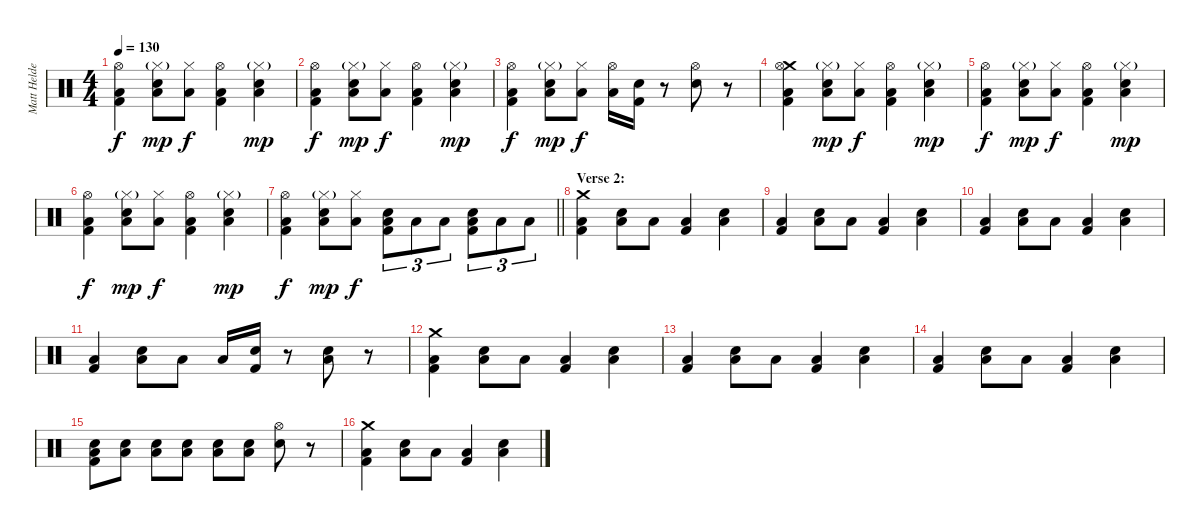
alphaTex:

\track ("Matt Helders (Percussion)" "Matt Helde") {instrument percussion}
\staff {score}
\articulation defaults
\ts (4 4)
\tempo 130
\clef neutral
\ks c
("Hi-Hat (open)" "Low Tom (hit)" "Kick (hit) 2").4{dy f} ("Hi-Hat (closed)"{g} "Snare (hit) 2" "Low Tom (hit)").8{dy mp} ("Hi-Hat (closed)" "Low Tom (hit)").8{dy f} ("Hi-Hat (open)" "Low Tom (hit)" "Kick (hit) 2").4 ("Hi-Hat (closed)"{g} "Snare (hit) 2" "Low Tom (hit)").4{dy mp} |
("Hi-Hat (open)" "Low Tom (hit)" "Kick (hit) 2").4{dy f} ("Hi-Hat (closed)"{g} "Snare (hit) 2" "Low Tom (hit)").8{dy mp} ("Hi-Hat (closed)" "Low Tom (hit)").8{dy f} ("Hi-Hat (open)" "Low Tom (hit)" "Kick (hit) 2").4 ("Hi-Hat (closed)"{g} "Snare (hit) 2" "Low Tom (hit)").4{dy mp} |
("Hi-Hat (open)" "Low Tom (hit)" "Kick (hit) 2").4{dy f} ("Hi-Hat (closed)"{g} "Snare (hit) 2" "Low Tom (hit)").8{dy mp} ("Hi-Hat (closed)" "Low Tom (hit)").8{dy f} ("Hi-Hat (open)" "Low Tom (hit)").16 ("Snare (hit) 2" "Kick (hit) 2").16 r.8 ("Hi-Hat (open)" "Hand Clap (hit)").8 r.8 |
("Crash medium (hit)" "Hi-Hat (open)" "Low Tom (hit)" "Kick (hit) 2").4 ("Hi-Hat (closed)"{g} "Snare (hit) 2" "Low Tom (hit)").8{dy mp} ("Hi-Hat (closed)" "Low Tom (hit)").8{dy f} ("Hi-Hat (open)" "Low Tom (hit)" "Kick (hit) 2").4 ("Hi-Hat (closed)"{g} "Snare (hit) 2" "Low Tom (hit)").4{dy mp} |
("Hi-Hat (open)" "Low Tom (hit)" "Kick (hit) 2").4{dy f} ("Hi-Hat (closed)"{g} "Snare (hit) 2" "Low Tom (hit)").8{dy mp} ("Hi-Hat (closed)" "Low Tom (hit)").8{dy f} ("Hi-Hat (open)" "Low Tom (hit)" "Kick (hit) 2").4 ("Hi-Hat (closed)"{g} "Snare (hit) 2" "Low Tom (hit)").4{dy mp} |
("Hi-Hat (open)" "Low Tom (hit)" "Kick (hit) 2").4{dy f} ("Hi-Hat (closed)"{g} "Snare (hit) 2" "Low Tom (hit)").8{dy mp} ("Hi-Hat (closed)" "Low Tom (hit)").8{dy f} ("Hi-Hat (open)" "Low Tom (hit)" "Kick (hit) 2").4 ("Hi-Hat (closed)"{g} "Snare (hit) 2" "Low Tom (hit)").4{dy mp} |
\barLineRight lightlight
("Hi-Hat (open)" "Low Tom (hit)" "Kick (hit) 2").4{dy f} ("Hi-Hat (closed)"{g} "Snare (hit) 2" "Low Tom (hit)").8{dy mp} ("Hi-Hat (closed)" "Low Tom (hit)").8{dy f} ("Snare (hit) 2" "Low Tom (hit)" "Kick (hit) 2").8{tu (3 2)} "Low Tom (hit)".8{tu (3 2)} "Low Tom (hit)".8{tu (3 2)} ("Snare (hit) 2" "Low Tom (hit)" "Kick (hit) 2").8{tu (3 2)} "Low Tom (hit)".8{tu (3 2)} "Low Tom (hit)".8{tu (3 2)} |
\section ("" "Verse 2:")
("Crash medium (hit)" "Low Tom (hit)" "Kick (hit) 2").4 ("Snare (hit) 2" "Low Tom (hit)").8 "Low Tom (hit)".8 ("Low Tom (hit)" "Kick (hit) 2").4 ("Snare (hit) 2" "Low Tom (hit)").4 |
("Low Tom (hit)" "Kick (hit) 2").4 ("Snare (hit) 2" "Low Tom (hit)").8 "Low Tom (hit)".8 ("Low Tom (hit)" "Kick (hit) 2").4 ("Snare (hit) 2" "Low Tom (hit)").4 |
("Low Tom (hit)" "Kick (hit) 2").4 ("Snare (hit) 2" "Low Tom (hit)").8 "Low Tom (hit)".8 ("Low Tom (hit)" "Kick (hit) 2").4 ("Snare (hit) 2" "Low Tom (hit)").4 |
("Low Tom (hit)" "Kick (hit) 2").4 ("Snare (hit) 2" "Low Tom (hit)").8 "Low Tom (hit)".8 "Low Tom (hit)".16 ("Snare (hit) 2" "Kick (hit) 2").16 r.8 ("Snare (hit) 2" "Low Tom (hit)").8 r.8 |
("Crash medium (hit)" "Low Tom (hit)" "Kick (hit) 2").4 ("Snare (hit) 2" "Low Tom (hit)").8 "Low Tom (hit)".8 ("Low Tom (hit)" "Kick (hit) 2").4 ("Snare (hit) 2" "Low Tom (hit)").4 |
("Low Tom (hit)" "Kick (hit) 2").4 ("Snare (hit) 2" "Low Tom (hit)").8 "Low Tom (hit)".8 ("Low Tom (hit)" "Kick (hit) 2").4 ("Snare (hit) 2" "Low Tom (hit)").4 |
("Low Tom (hit)" "Kick (hit) 2").4 ("Snare (hit) 2" "Low Tom (hit)").8 "Low Tom (hit)".8 ("Low Tom (hit)" "Kick (hit) 2").4 ("Snare (hit) 2" "Low Tom (hit)").4 |
("Snare (hit) 2" "Low Tom (hit)" "Kick (hit) 2").8 ("Snare (hit) 2" "Low Tom (hit)").8 ("Snare (hit) 2" "Low Tom (hit)").8 ("Snare (hit) 2" "Low Tom (hit)").8 ("Snare (hit) 2" "Low Tom (hit)").8 ("Snare (hit) 2" "Low Tom (hit)").8 ("Hi-Hat (open)" "Snare (hit) 2").8 r.8 |
("Crash medium (hit)" "Low Tom (hit)" "Kick (hit) 2").4 ("Snare (hit) 2" "Low Tom (hit)").8 "Low Tom (hit)".8 ("Low Tom (hit)" "Kick (hit) 2").4 ("Snare (hit) 2" "Low Tom (hit)").4
